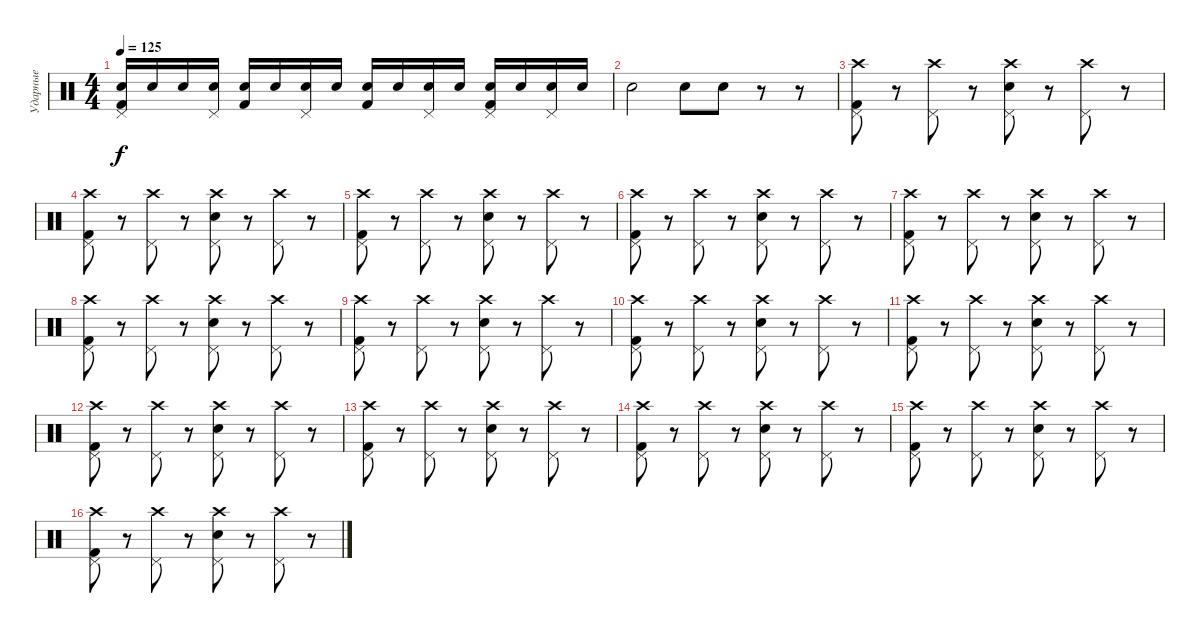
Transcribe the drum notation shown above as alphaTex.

\track ("Ударные" "Ударные") {instrument percussion}
\staff {score}
\articulation defaults
\ts (4 4)
\tempo 125
\clef neutral
\ks c
("Kick (hit) 2" "Snare (hit) 2" "Pedal Hi-Hat (hit)").16{dy f} "Snare (hit) 2".16 "Snare (hit) 2".16 ("Snare (hit) 2" "Pedal Hi-Hat (hit)").16 ("Kick (hit) 2" "Snare (hit) 2").16 "Snare (hit) 2".16 ("Snare (hit) 2" "Pedal Hi-Hat (hit)").16 "Snare (hit) 2".16 ("Kick (hit) 2" "Snare (hit) 2").16 "Snare (hit) 2".16 ("Snare (hit) 2" "Pedal Hi-Hat (hit)").16 "Snare (hit) 2".16 ("Kick (hit) 2" "Snare (hit) 2" "Pedal Hi-Hat (hit)").16 "Snare (hit) 2".16 ("Snare (hit) 2" "Pedal Hi-Hat (hit)").16 "Snare (hit) 2".16 |
"Snare (hit) 2".2 "Snare (hit) 2".8 "Snare (hit) 2".8 r.8 r.8 |
("Crash high (hit)" "Kick (hit) 2" "Pedal Hi-Hat (hit)").8 r.8 ("Crash high (hit)" "Pedal Hi-Hat (hit)").8 r.8 ("Crash high (hit)" "Pedal Hi-Hat (hit)" "Snare (hit) 2").8 r.8 ("Crash high (hit)" "Pedal Hi-Hat (hit)").8 r.8 |
("Crash high (hit)" "Kick (hit) 2" "Pedal Hi-Hat (hit)").8 r.8 ("Crash high (hit)" "Pedal Hi-Hat (hit)").8 r.8 ("Crash high (hit)" "Pedal Hi-Hat (hit)" "Snare (hit) 2").8 r.8 ("Crash high (hit)" "Pedal Hi-Hat (hit)").8 r.8 |
("Crash high (hit)" "Kick (hit) 2" "Pedal Hi-Hat (hit)").8 r.8 ("Crash high (hit)" "Pedal Hi-Hat (hit)").8 r.8 ("Crash high (hit)" "Pedal Hi-Hat (hit)" "Snare (hit) 2").8 r.8 ("Crash high (hit)" "Pedal Hi-Hat (hit)").8 r.8 |
("Crash high (hit)" "Kick (hit) 2" "Pedal Hi-Hat (hit)").8 r.8 ("Crash high (hit)" "Pedal Hi-Hat (hit)").8 r.8 ("Crash high (hit)" "Pedal Hi-Hat (hit)" "Snare (hit) 2").8 r.8 ("Crash high (hit)" "Pedal Hi-Hat (hit)").8 r.8 |
("Crash high (hit)" "Kick (hit) 2" "Pedal Hi-Hat (hit)").8 r.8 ("Crash high (hit)" "Pedal Hi-Hat (hit)").8 r.8 ("Crash high (hit)" "Pedal Hi-Hat (hit)" "Snare (hit) 2").8 r.8 ("Crash high (hit)" "Pedal Hi-Hat (hit)").8 r.8 |
("Crash high (hit)" "Kick (hit) 2" "Pedal Hi-Hat (hit)").8 r.8 ("Crash high (hit)" "Pedal Hi-Hat (hit)").8 r.8 ("Crash high (hit)" "Pedal Hi-Hat (hit)" "Snare (hit) 2").8 r.8 ("Crash high (hit)" "Pedal Hi-Hat (hit)").8 r.8 |
("Crash high (hit)" "Kick (hit) 2" "Pedal Hi-Hat (hit)").8 r.8 ("Crash high (hit)" "Pedal Hi-Hat (hit)").8 r.8 ("Crash high (hit)" "Pedal Hi-Hat (hit)" "Snare (hit) 2").8 r.8 ("Crash high (hit)" "Pedal Hi-Hat (hit)").8 r.8 |
("Crash high (hit)" "Kick (hit) 2" "Pedal Hi-Hat (hit)").8 r.8 ("Crash high (hit)" "Pedal Hi-Hat (hit)").8 r.8 ("Crash high (hit)" "Pedal Hi-Hat (hit)" "Snare (hit) 2").8 r.8 ("Crash high (hit)" "Pedal Hi-Hat (hit)").8 r.8 |
("Crash high (hit)" "Kick (hit) 2" "Pedal Hi-Hat (hit)").8 r.8 ("Crash high (hit)" "Pedal Hi-Hat (hit)").8 r.8 ("Crash high (hit)" "Pedal Hi-Hat (hit)" "Snare (hit) 2").8 r.8 ("Crash high (hit)" "Pedal Hi-Hat (hit)").8 r.8 |
("Crash high (hit)" "Kick (hit) 2" "Pedal Hi-Hat (hit)").8 r.8 ("Crash high (hit)" "Pedal Hi-Hat (hit)").8 r.8 ("Crash high (hit)" "Pedal Hi-Hat (hit)" "Snare (hit) 2").8 r.8 ("Crash high (hit)" "Pedal Hi-Hat (hit)").8 r.8 |
("Crash high (hit)" "Kick (hit) 2" "Pedal Hi-Hat (hit)").8 r.8 ("Crash high (hit)" "Pedal Hi-Hat (hit)").8 r.8 ("Crash high (hit)" "Pedal Hi-Hat (hit)" "Snare (hit) 2").8 r.8 ("Crash high (hit)" "Pedal Hi-Hat (hit)").8 r.8 |
("Crash high (hit)" "Kick (hit) 2" "Pedal Hi-Hat (hit)").8 r.8 ("Crash high (hit)" "Pedal Hi-Hat (hit)").8 r.8 ("Crash high (hit)" "Pedal Hi-Hat (hit)" "Snare (hit) 2").8 r.8 ("Crash high (hit)" "Pedal Hi-Hat (hit)").8 r.8 |
("Crash high (hit)" "Kick (hit) 2" "Pedal Hi-Hat (hit)").8 r.8 ("Crash high (hit)" "Pedal Hi-Hat (hit)").8 r.8 ("Crash high (hit)" "Pedal Hi-Hat (hit)" "Snare (hit) 2").8 r.8 ("Crash high (hit)" "Pedal Hi-Hat (hit)").8 r.8 |
("Crash high (hit)" "Kick (hit) 2" "Pedal Hi-Hat (hit)").8 r.8 ("Crash high (hit)" "Pedal Hi-Hat (hit)").8 r.8 ("Crash high (hit)" "Pedal Hi-Hat (hit)" "Snare (hit) 2").8 r.8 ("Crash high (hit)" "Pedal Hi-Hat (hit)").8 r.8
